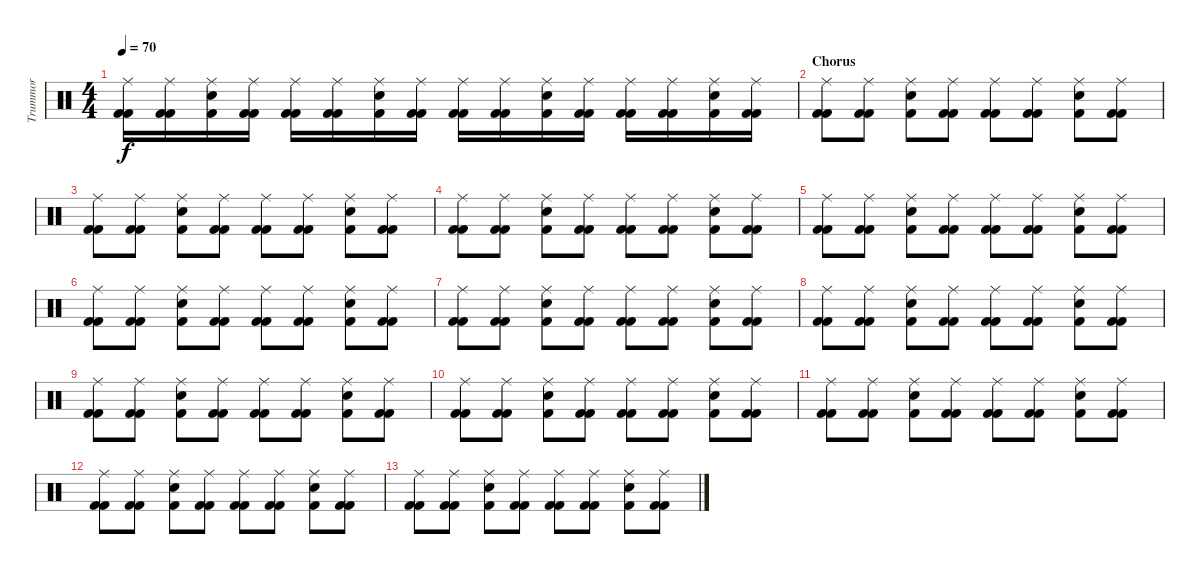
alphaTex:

\track ("Trummor" "Trummor") {instrument percussion}
\staff {score}
\articulation defaults
\ts (4 4)
\tempo 70
\clef neutral
\ks c
("Ride (middle)" "Kick (hit) 2" "Kick (hit) 2").16{dy f} ("Ride (middle)" "Kick (hit) 2" "Kick (hit) 2").16 ("Snare (hit) 2" "Ride (middle)" "Kick (hit) 2").16 ("Ride (middle)" "Kick (hit) 2" "Kick (hit) 2").16 ("Ride (middle)" "Kick (hit) 2" "Kick (hit) 2").16 ("Ride (middle)" "Kick (hit) 2" "Kick (hit) 2").16 ("Snare (hit) 2" "Ride (middle)" "Kick (hit) 2").16 ("Ride (middle)" "Kick (hit) 2" "Kick (hit) 2").16 ("Ride (middle)" "Kick (hit) 2" "Kick (hit) 2").16 ("Ride (middle)" "Kick (hit) 2" "Kick (hit) 2").16 ("Snare (hit) 2" "Ride (middle)" "Kick (hit) 2").16 ("Ride (middle)" "Kick (hit) 2" "Kick (hit) 2").16 ("Ride (middle)" "Kick (hit) 2" "Kick (hit) 2").16 ("Ride (middle)" "Kick (hit) 2" "Kick (hit) 2").16 ("Snare (hit) 2" "Ride (middle)" "Kick (hit) 2").16 ("Ride (middle)" "Kick (hit) 2" "Kick (hit) 2").16 |
\section ("" "Chorus")
("Ride (middle)" "Kick (hit) 2" "Kick (hit) 2").8 ("Ride (middle)" "Kick (hit) 2" "Kick (hit) 2").8 ("Ride (middle)" "Snare (hit) 2" "Kick (hit) 2").8 ("Ride (middle)" "Kick (hit) 2" "Kick (hit) 2").8 ("Ride (middle)" "Kick (hit) 2" "Kick (hit) 2").8 ("Ride (middle)" "Kick (hit) 2" "Kick (hit) 2").8 ("Ride (middle)" "Snare (hit) 2" "Kick (hit) 2").8 ("Ride (middle)" "Kick (hit) 2" "Kick (hit) 2").8 |
("Ride (middle)" "Kick (hit) 2" "Kick (hit) 2").8 ("Ride (middle)" "Kick (hit) 2" "Kick (hit) 2").8 ("Ride (middle)" "Snare (hit) 2" "Kick (hit) 2").8 ("Ride (middle)" "Kick (hit) 2" "Kick (hit) 2").8 ("Ride (middle)" "Kick (hit) 2" "Kick (hit) 2").8 ("Ride (middle)" "Kick (hit) 2" "Kick (hit) 2").8 ("Ride (middle)" "Snare (hit) 2" "Kick (hit) 2").8 ("Ride (middle)" "Kick (hit) 2" "Kick (hit) 2").8 |
("Ride (middle)" "Kick (hit) 2" "Kick (hit) 2").8 ("Ride (middle)" "Kick (hit) 2" "Kick (hit) 2").8 ("Ride (middle)" "Snare (hit) 2" "Kick (hit) 2").8 ("Ride (middle)" "Kick (hit) 2" "Kick (hit) 2").8 ("Ride (middle)" "Kick (hit) 2" "Kick (hit) 2").8 ("Ride (middle)" "Kick (hit) 2" "Kick (hit) 2").8 ("Ride (middle)" "Snare (hit) 2" "Kick (hit) 2").8 ("Ride (middle)" "Kick (hit) 2" "Kick (hit) 2").8 |
("Ride (middle)" "Kick (hit) 2" "Kick (hit) 2").8 ("Ride (middle)" "Kick (hit) 2" "Kick (hit) 2").8 ("Ride (middle)" "Snare (hit) 2" "Kick (hit) 2").8 ("Ride (middle)" "Kick (hit) 2" "Kick (hit) 2").8 ("Ride (middle)" "Kick (hit) 2" "Kick (hit) 2").8 ("Ride (middle)" "Kick (hit) 2" "Kick (hit) 2").8 ("Ride (middle)" "Snare (hit) 2" "Kick (hit) 2").8 ("Ride (middle)" "Kick (hit) 2" "Kick (hit) 2").8 |
("Ride (middle)" "Kick (hit) 2" "Kick (hit) 2").8 ("Ride (middle)" "Kick (hit) 2" "Kick (hit) 2").8 ("Ride (middle)" "Snare (hit) 2" "Kick (hit) 2").8 ("Ride (middle)" "Kick (hit) 2" "Kick (hit) 2").8 ("Ride (middle)" "Kick (hit) 2" "Kick (hit) 2").8 ("Ride (middle)" "Kick (hit) 2" "Kick (hit) 2").8 ("Ride (middle)" "Snare (hit) 2" "Kick (hit) 2").8 ("Ride (middle)" "Kick (hit) 2" "Kick (hit) 2").8 |
("Ride (middle)" "Kick (hit) 2" "Kick (hit) 2").8 ("Ride (middle)" "Kick (hit) 2" "Kick (hit) 2").8 ("Ride (middle)" "Snare (hit) 2" "Kick (hit) 2").8 ("Ride (middle)" "Kick (hit) 2" "Kick (hit) 2").8 ("Ride (middle)" "Kick (hit) 2" "Kick (hit) 2").8 ("Ride (middle)" "Kick (hit) 2" "Kick (hit) 2").8 ("Ride (middle)" "Snare (hit) 2" "Kick (hit) 2").8 ("Ride (middle)" "Kick (hit) 2" "Kick (hit) 2").8 |
("Ride (middle)" "Kick (hit) 2" "Kick (hit) 2").8 ("Ride (middle)" "Kick (hit) 2" "Kick (hit) 2").8 ("Ride (middle)" "Snare (hit) 2" "Kick (hit) 2").8 ("Ride (middle)" "Kick (hit) 2" "Kick (hit) 2").8 ("Ride (middle)" "Kick (hit) 2" "Kick (hit) 2").8 ("Ride (middle)" "Kick (hit) 2" "Kick (hit) 2").8 ("Ride (middle)" "Snare (hit) 2" "Kick (hit) 2").8 ("Ride (middle)" "Kick (hit) 2" "Kick (hit) 2").8 |
("Ride (middle)" "Kick (hit) 2" "Kick (hit) 2").8 ("Ride (middle)" "Kick (hit) 2" "Kick (hit) 2").8 ("Ride (middle)" "Snare (hit) 2" "Kick (hit) 2").8 ("Ride (middle)" "Kick (hit) 2" "Kick (hit) 2").8 ("Ride (middle)" "Kick (hit) 2" "Kick (hit) 2").8 ("Ride (middle)" "Kick (hit) 2" "Kick (hit) 2").8 ("Ride (middle)" "Snare (hit) 2" "Kick (hit) 2").8 ("Ride (middle)" "Kick (hit) 2" "Kick (hit) 2").8 |
("Ride (middle)" "Kick (hit) 2" "Kick (hit) 2").8 ("Ride (middle)" "Kick (hit) 2" "Kick (hit) 2").8 ("Ride (middle)" "Snare (hit) 2" "Kick (hit) 2").8 ("Ride (middle)" "Kick (hit) 2" "Kick (hit) 2").8 ("Ride (middle)" "Kick (hit) 2" "Kick (hit) 2").8 ("Ride (middle)" "Kick (hit) 2" "Kick (hit) 2").8 ("Ride (middle)" "Snare (hit) 2" "Kick (hit) 2").8 ("Ride (middle)" "Kick (hit) 2" "Kick (hit) 2").8 |
("Ride (middle)" "Kick (hit) 2" "Kick (hit) 2").8 ("Ride (middle)" "Kick (hit) 2" "Kick (hit) 2").8 ("Ride (middle)" "Snare (hit) 2" "Kick (hit) 2").8 ("Ride (middle)" "Kick (hit) 2" "Kick (hit) 2").8 ("Ride (middle)" "Kick (hit) 2" "Kick (hit) 2").8 ("Ride (middle)" "Kick (hit) 2" "Kick (hit) 2").8 ("Ride (middle)" "Snare (hit) 2" "Kick (hit) 2").8 ("Ride (middle)" "Kick (hit) 2" "Kick (hit) 2").8 |
("Ride (middle)" "Kick (hit) 2" "Kick (hit) 2").8{volume 4} ("Ride (middle)" "Kick (hit) 2" "Kick (hit) 2").8 ("Ride (middle)" "Snare (hit) 2" "Kick (hit) 2").8 ("Ride (middle)" "Kick (hit) 2" "Kick (hit) 2").8 ("Ride (middle)" "Kick (hit) 2" "Kick (hit) 2").8 ("Ride (middle)" "Kick (hit) 2" "Kick (hit) 2").8 ("Ride (middle)" "Snare (hit) 2" "Kick (hit) 2").8 ("Ride (middle)" "Kick (hit) 2" "Kick (hit) 2").8 |
("Ride (middle)" "Kick (hit) 2" "Kick (hit) 2").8{volume 0} ("Ride (middle)" "Kick (hit) 2" "Kick (hit) 2").8 ("Ride (middle)" "Snare (hit) 2" "Kick (hit) 2").8 ("Ride (middle)" "Kick (hit) 2" "Kick (hit) 2").8 ("Ride (middle)" "Kick (hit) 2" "Kick (hit) 2").8 ("Ride (middle)" "Kick (hit) 2" "Kick (hit) 2").8 ("Ride (middle)" "Snare (hit) 2" "Kick (hit) 2").8 ("Ride (middle)" "Kick (hit) 2" "Kick (hit) 2").8
